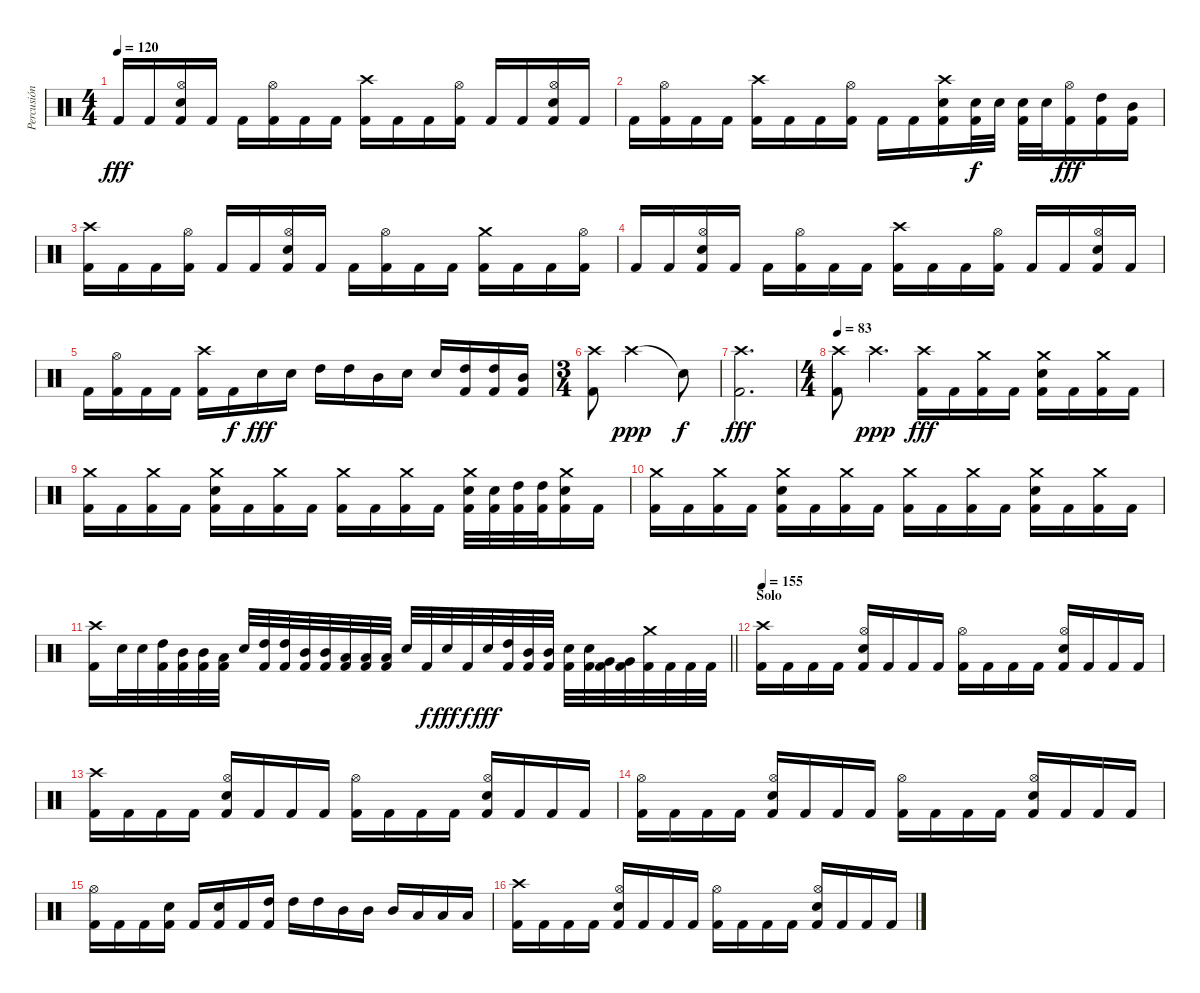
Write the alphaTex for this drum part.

\track ("Percusión" "Percusión") {instrument percussion}
\staff {score}
\articulation defaults
\ts (4 4)
\tempo 120
\clef neutral
\ks c "Kick (hit) 2".16{dy fff} "Kick (hit) 2".16
("Hi-Hat (open)" "Electric Snare (hit)" "Kick (hit) 2").16 "Kick (hit) 2".16 "Kick (hit) 2".16 ("Hi-Hat (open)" "Kick (hit) 2").16 "Kick (hit) 2".16 "Kick (hit) 2".16 ("Crash high (hit)" "Kick (hit) 2").16 "Kick (hit) 2".16 "Kick (hit) 2".16 ("Hi-Hat (open)" "Kick (hit) 2").16 "Kick (hit) 2".16 "Kick (hit) 2".16 ("Hi-Hat (open)" "Electric Snare (hit)" "Kick (hit) 2").16 "Kick (hit) 2".16 |
"Kick (hit) 2".16 ("Hi-Hat (open)" "Kick (hit) 2").16 "Kick (hit) 2".16 "Kick (hit) 2".16 ("Crash high (hit)" "Kick (hit) 2").16 "Kick (hit) 2".16 "Kick (hit) 2".16 ("Hi-Hat (open)" "Kick (hit) 2").16 "Kick (hit) 2".16 "Kick (hit) 2".16 ("Crash high (hit)" "Electric Snare (hit)" "Kick (hit) 2").16 ("Electric Snare (hit)" "Kick (hit) 2").32{dy f} "Electric Snare (hit)".32 ("Electric Snare (hit)" "Kick (hit) 2").32 "Electric Snare (hit)".32 ("Hi-Hat (open)" "Kick (hit) 2").16{dy fff} ("High Tom (hit)" "Kick (hit) 2").16 ("Mid Tom (hit)" "Kick (hit) 2").16 |
("Crash high (hit)" "Kick (hit) 2").16 "Kick (hit) 2".16 "Kick (hit) 2".16 ("Hi-Hat (open)" "Kick (hit) 2").16 "Kick (hit) 2".16 "Kick (hit) 2".16 ("Hi-Hat (open)" "Electric Snare (hit)" "Kick (hit) 2").16 "Kick (hit) 2".16 "Kick (hit) 2".16 ("Hi-Hat (open)" "Kick (hit) 2").16 "Kick (hit) 2".16 "Kick (hit) 2".16 ("Crash medium (hit)" "Kick (hit) 2").16 "Kick (hit) 2".16 "Kick (hit) 2".16 ("Hi-Hat (open)" "Kick (hit) 2").16 |
"Kick (hit) 2".16 "Kick (hit) 2".16 ("Hi-Hat (open)" "Electric Snare (hit)" "Kick (hit) 2").16 "Kick (hit) 2".16 "Kick (hit) 2".16 ("Hi-Hat (open)" "Kick (hit) 2").16 "Kick (hit) 2".16 "Kick (hit) 2".16 ("Crash high (hit)" "Kick (hit) 2").16 "Kick (hit) 2".16 "Kick (hit) 2".16 ("Hi-Hat (open)" "Kick (hit) 2").16 "Kick (hit) 2".16 "Kick (hit) 2".16 ("Hi-Hat (open)" "Electric Snare (hit)" "Kick (hit) 2").16 "Kick (hit) 2".16 |
"Kick (hit) 2".16 ("Hi-Hat (open)" "Kick (hit) 2").16 "Kick (hit) 2".16 "Kick (hit) 2".16 ("Crash high (hit)" "Kick (hit) 2").16 "Kick (hit) 2".16{dy f} "Electric Snare (hit)".16{dy fff} "Electric Snare (hit)".16 "High Tom (hit)".16 "High Tom (hit)".16 "Mid Tom (hit)".16 "Electric Snare (hit)".16 "Electric Snare (hit)".16 ("High Tom (hit)" "Kick (hit) 2").16 ("High Tom (hit)" "Kick (hit) 2").16 ("Mid Tom (hit)" "Kick (hit) 2").16 |
\ts (3 4)
("Crash high (hit)" "Kick (hit) 2").8 "Crash high (hit)".2{dy ppp} "Snare (hit)"{t}.8{dy f} |
("Crash high (hit)" "Kick (hit) 2").2{d dy fff} |
\ts (4 4)
\tempo 83
("Crash high (hit)" "Kick (hit) 2").8 "Crash high (hit)".4{d dy ppp} ("Crash high (hit)" "Kick (hit) 2").16{dy fff} "Kick (hit) 2".16 ("Crash medium (hit)" "Kick (hit) 2").16 "Kick (hit) 2".16 ("Crash medium (hit)" "Electric Snare (hit)" "Kick (hit) 2").16 "Kick (hit) 2".16 ("Crash medium (hit)" "Kick (hit) 2").16 "Kick (hit) 2".16 |
("Crash medium (hit)" "Kick (hit) 2").16 "Kick (hit) 2".16 ("Crash medium (hit)" "Kick (hit) 2").16 "Kick (hit) 2".16 ("Crash medium (hit)" "Electric Snare (hit)" "Kick (hit) 2").16 "Kick (hit) 2".16 ("Crash medium (hit)" "Kick (hit) 2").16 "Kick (hit) 2".16 ("Crash medium (hit)" "Kick (hit) 2").16 "Kick (hit) 2".16 ("Crash medium (hit)" "Kick (hit) 2").16 "Kick (hit) 2".16 ("Crash medium (hit)" "Electric Snare (hit)" "Kick (hit) 2").32 ("Electric Snare (hit)" "Kick (hit) 2").32 ("High Tom (hit)" "Kick (hit) 2").32 ("High Tom (hit)" "Kick (hit) 2").32 ("Crash medium (hit)" "Electric Snare (hit)" "Kick (hit) 2").16 "Kick (hit) 2".16 |
("Crash medium (hit)" "Kick (hit) 2").16 "Kick (hit) 2".16 ("Crash medium (hit)" "Kick (hit) 2").16 "Kick (hit) 2".16 ("Crash medium (hit)" "Electric Snare (hit)" "Kick (hit) 2").16 "Kick (hit) 2".16 ("Crash medium (hit)" "Kick (hit) 2").16 "Kick (hit) 2".16 ("Crash medium (hit)" "Kick (hit) 2").16 "Kick (hit) 2".16 ("Crash medium (hit)" "Kick (hit) 2").16 "Kick (hit) 2".16 ("Crash medium (hit)" "Electric Snare (hit)" "Kick (hit) 2").16 "Kick (hit) 2".16 ("Crash medium (hit)" "Kick (hit) 2").16 "Kick (hit) 2".16 |
\barLineRight lightlight
("Crash high (hit)" "Kick (hit) 2").16 "Electric Snare (hit)".32 "Electric Snare (hit)".32 ("High Tom (hit)" "Kick (hit) 2").32 ("Mid Tom (hit)" "Kick (hit) 2").32 ("Mid Tom (hit)" "Kick (hit) 2").32 ("Low Tom (hit)" "Kick (hit) 2").32 "Electric Snare (hit)".32 ("High Tom (hit)" "Kick (hit) 2").32 ("High Tom (hit)" "Kick (hit) 2").32 ("Mid Tom (hit)" "Kick (hit) 2").32 ("Mid Tom (hit)" "Kick (hit) 2").32 ("Low Tom (hit)" "Kick (hit) 2").32 ("Low Tom (hit)" "Kick (hit) 2").32 ("Low Tom (hit)" "Kick (hit) 2").32 "Electric Snare (hit)".32 "Kick (hit) 2".32{dy f} "Electric Snare (hit)".32{dy fff} "Kick (hit) 2".32{dy f} "Electric Snare (hit)".32{dy fff} ("High Tom (hit)" "Kick (hit) 2").32 ("Mid Tom (hit)" "Kick (hit) 2").32 ("Mid Tom (hit)" "Kick (hit) 2").32 ("Electric Snare (hit)" "Kick (hit) 2").32 ("Electric Snare (hit)" "Kick (hit) 2").32 ("Very Low Tom (hit)" "Kick (hit) 2").32 ("Very Low Tom (hit)" "Kick (hit) 2").32 ("Crash medium (hit)" "Kick (hit) 2").32 "Kick (hit) 2".32 "Kick (hit) 2".32 "Kick (hit) 2".32 |
\section ("" "Solo")
\tempo 150
\tempo 155
("Crash high (hit)" "Kick (hit) 2").16 "Kick (hit) 2".16 "Kick (hit) 2".16 "Kick (hit) 2".16 ("Hi-Hat (open)" "Electric Snare (hit)" "Kick (hit) 2").16 "Kick (hit) 2".16 "Kick (hit) 2".16 "Kick (hit) 2".16 ("Hi-Hat (open)" "Kick (hit) 2").16 "Kick (hit) 2".16 "Kick (hit) 2".16 "Kick (hit) 2".16 ("Hi-Hat (open)" "Electric Snare (hit)" "Kick (hit) 2").16 "Kick (hit) 2".16 "Kick (hit) 2".16 "Kick (hit) 2".16 |
("Crash high (hit)" "Kick (hit) 2").16 "Kick (hit) 2".16 "Kick (hit) 2".16 "Kick (hit) 2".16 ("Hi-Hat (open)" "Electric Snare (hit)" "Kick (hit) 2").16 "Kick (hit) 2".16 "Kick (hit) 2".16 "Kick (hit) 2".16 ("Hi-Hat (open)" "Kick (hit) 2").16 "Kick (hit) 2".16 "Kick (hit) 2".16 "Kick (hit) 2".16 ("Hi-Hat (open)" "Electric Snare (hit)" "Kick (hit) 2").16 "Kick (hit) 2".16 "Kick (hit) 2".16 "Kick (hit) 2".16 |
("Hi-Hat (open)" "Kick (hit) 2").16 "Kick (hit) 2".16 "Kick (hit) 2".16 "Kick (hit) 2".16 ("Hi-Hat (open)" "Electric Snare (hit)" "Kick (hit) 2").16 "Kick (hit) 2".16 "Kick (hit) 2".16 "Kick (hit) 2".16 ("Hi-Hat (open)" "Kick (hit) 2").16 "Kick (hit) 2".16 "Kick (hit) 2".16 "Kick (hit) 2".16 ("Hi-Hat (open)" "Electric Snare (hit)" "Kick (hit) 2").16 "Kick (hit) 2".16 "Kick (hit) 2".16 "Kick (hit) 2".16 |
("Hi-Hat (open)" "Kick (hit) 2").16 "Kick (hit) 2".16 "Kick (hit) 2".16 ("Electric Snare (hit)" "Kick (hit) 2").16 "Kick (hit) 2".16 ("Electric Snare (hit)" "Kick (hit) 2").16 "Kick (hit) 2".16 ("High Tom (hit)" "Kick (hit) 2").16 "High Tom (hit)".16 "High Tom (hit)".16 "Mid Tom (hit)".16 "Mid Tom (hit)".16 "Mid Tom (hit)".16 "Low Tom (hit)".16 "Low Tom (hit)".16 "Low Tom (hit)".16 |
("Crash high (hit)" "Kick (hit) 2").16 "Kick (hit) 2".16 "Kick (hit) 2".16 "Kick (hit) 2".16 ("Hi-Hat (open)" "Electric Snare (hit)" "Kick (hit) 2").16 "Kick (hit) 2".16 "Kick (hit) 2".16 "Kick (hit) 2".16 ("Hi-Hat (open)" "Kick (hit) 2").16 "Kick (hit) 2".16 "Kick (hit) 2".16 "Kick (hit) 2".16 ("Hi-Hat (open)" "Electric Snare (hit)" "Kick (hit) 2").16 "Kick (hit) 2".16 "Kick (hit) 2".16 "Kick (hit) 2".16
